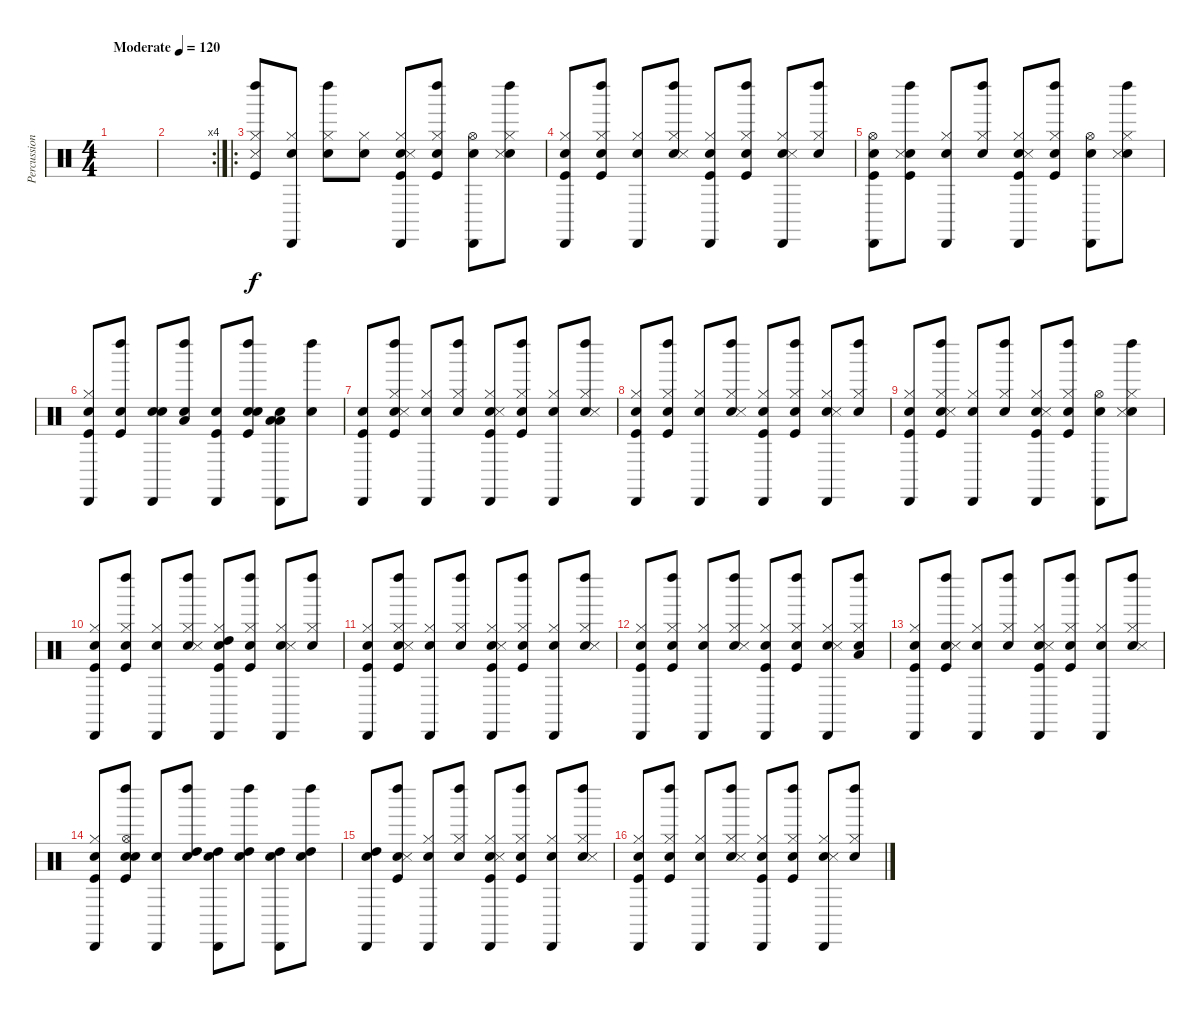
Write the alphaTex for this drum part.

\track ("Percussions" "Percussion") {instrument percussion}
\staff {score}
\articulation defaults
\ts (4 4)
\tempo (120 "Moderate")
\clef neutral
\ks c
|
\rc 4
|
\ro
("Kick (hit)" "Hi-Hat (closed)" "Snare (side stick) 3" "Left Maraca (hit)").8 ("Snare (hit)" "Hi-Hat (closed)" "Cabasa (hit)").8 ("Snare (hit)" "Hi-Hat (closed)" "Left Maraca (hit)").8 ("Snare (hit)" "Hi-Hat (closed)").8 ("Snare (hit)" "Kick (hit)" "Hi-Hat (closed)" "Snare (side stick) 3" "Cabasa (hit)").8 ("Snare (hit)" "Kick (hit)" "Hi-Hat (closed)" "Left Maraca (hit)").8 ("Snare (hit)" "Hi-Hat (open)" "Cabasa (hit)").8 ("Snare (hit)" "Hi-Hat (closed)" "Snare (side stick) 3" "Left Maraca (hit)").8 |
("Snare (hit)" "Kick (hit)" "Hi-Hat (closed)" "Cabasa (hit)").8 ("Snare (hit)" "Kick (hit)" "Hi-Hat (closed)" "Left Maraca (hit)").8 ("Snare (hit)" "Hi-Hat (closed)" "Cabasa (hit)").8 ("Snare (hit)" "Hi-Hat (closed)" "Snare (side stick) 3" "Left Maraca (hit)").8 ("Snare (hit)" "Kick (hit)" "Hi-Hat (closed)" "Cabasa (hit)").8 ("Snare (hit)" "Kick (hit)" "Hi-Hat (closed)" "Left Maraca (hit)").8 ("Snare (hit)" "Hi-Hat (closed)" "Snare (side stick) 3" "Cabasa (hit)").8 ("Snare (hit)" "Hi-Hat (closed)" "Left Maraca (hit)").8 |
("Snare (hit)" "Kick (hit)" "Hi-Hat (open)" "Cabasa (hit)").8 ("Snare (hit)" "Kick (hit)" "Snare (side stick) 3" "Left Maraca (hit)").8 ("Snare (hit)" "Hi-Hat (closed)" "Cabasa (hit)").8 ("Snare (hit)" "Hi-Hat (closed)" "Left Maraca (hit)").8 ("Snare (hit)" "Kick (hit)" "Hi-Hat (closed)" "Snare (side stick) 3" "Cabasa (hit)").8 ("Snare (hit)" "Kick (hit)" "Hi-Hat (closed)" "Left Maraca (hit)").8 ("Snare (hit)" "Hi-Hat (open)" "Cabasa (hit)").8 ("Snare (hit)" "Hi-Hat (closed)" "Snare (side stick) 3" "Left Maraca (hit)").8 |
("Snare (hit)" "Kick (hit)" "Hi-Hat (closed)" "Cabasa (hit)").8 ("Snare (hit)" "Kick (hit)" "Left Maraca (hit)").8 ("Snare (hit)" "Snare (hit) 2" "Cabasa (hit)").8 ("Snare (hit)" "Low Tom (hit)" "Left Maraca (hit)").8 ("Snare (hit)" "Kick (hit)" "Cabasa (hit)").8 ("Snare (hit)" "Kick (hit)" "Snare (hit) 2" "Left Maraca (hit)").8 ("Snare (hit)" "Low Floor Tom (hit)" "Low Tom (hit)" "Cabasa (hit)").8 ("Snare (hit)" "Left Maraca (hit)").8 |
("Snare (hit)" "Kick (hit)" "Cabasa (hit)").8 ("Snare (hit)" "Kick (hit)" "Hi-Hat (closed)" "Snare (side stick) 3" "Left Maraca (hit)").8 ("Snare (hit)" "Hi-Hat (closed)" "Cabasa (hit)").8 ("Snare (hit)" "Hi-Hat (closed)" "Left Maraca (hit)").8 ("Snare (hit)" "Kick (hit)" "Hi-Hat (closed)" "Snare (side stick) 3" "Cabasa (hit)").8 ("Snare (hit)" "Kick (hit)" "Hi-Hat (closed)" "Left Maraca (hit)").8 ("Snare (hit)" "Hi-Hat (closed)" "Cabasa (hit)").8 ("Snare (hit)" "Hi-Hat (closed)" "Snare (side stick) 3" "Left Maraca (hit)").8 |
("Snare (hit)" "Kick (hit)" "Hi-Hat (closed)" "Cabasa (hit)").8 ("Snare (hit)" "Kick (hit)" "Hi-Hat (closed)" "Left Maraca (hit)").8 ("Snare (hit)" "Hi-Hat (closed)" "Cabasa (hit)").8 ("Snare (hit)" "Hi-Hat (closed)" "Snare (side stick) 3" "Left Maraca (hit)").8 ("Snare (hit)" "Kick (hit)" "Hi-Hat (closed)" "Cabasa (hit)").8 ("Snare (hit)" "Kick (hit)" "Hi-Hat (closed)" "Left Maraca (hit)").8 ("Snare (hit)" "Hi-Hat (closed)" "Snare (side stick) 3" "Cabasa (hit)").8 ("Snare (hit)" "Hi-Hat (closed)" "Left Maraca (hit)").8 |
("Snare (hit)" "Kick (hit)" "Hi-Hat (closed)" "Cabasa (hit)").8 ("Snare (hit)" "Kick (hit)" "Hi-Hat (closed)" "Snare (side stick) 3" "Left Maraca (hit)").8 ("Snare (hit)" "Hi-Hat (closed)" "Cabasa (hit)").8 ("Snare (hit)" "Hi-Hat (closed)" "Left Maraca (hit)").8 ("Snare (hit)" "Kick (hit)" "Hi-Hat (closed)" "Snare (side stick) 3" "Cabasa (hit)").8 ("Snare (hit)" "Kick (hit)" "Hi-Hat (closed)" "Left Maraca (hit)").8 ("Snare (hit)" "Hi-Hat (open)" "Cabasa (hit)").8 ("Snare (hit)" "Hi-Hat (closed)" "Snare (side stick) 3" "Left Maraca (hit)").8 |
("Snare (hit)" "Kick (hit)" "Hi-Hat (closed)" "Cabasa (hit)").8 ("Snare (hit)" "Kick (hit)" "Hi-Hat (closed)" "Left Maraca (hit)").8 ("Snare (hit)" "Hi-Hat (closed)" "Cabasa (hit)").8 ("Snare (hit)" "Hi-Hat (closed)" "Snare (side stick) 3" "Left Maraca (hit)").8 ("Snare (hit)" "Kick (hit)" "Hi-Hat (closed)" "High Tom (hit)" "Cabasa (hit)").8 ("Snare (hit)" "Kick (hit)" "Hi-Hat (closed)" "Left Maraca (hit)").8 ("Snare (hit)" "Hi-Hat (closed)" "Snare (side stick) 3" "Cabasa (hit)").8 ("Snare (hit)" "Hi-Hat (closed)" "Left Maraca (hit)").8 |
("Snare (hit)" "Kick (hit)" "Hi-Hat (closed)" "Cabasa (hit)").8 ("Snare (hit)" "Kick (hit)" "Hi-Hat (closed)" "Snare (side stick) 3" "Left Maraca (hit)").8 ("Snare (hit)" "Hi-Hat (closed)" "Cabasa (hit)").8 ("Snare (hit)" "Hi-Hat (closed)" "Left Maraca (hit)").8 ("Snare (hit)" "Kick (hit)" "Hi-Hat (closed)" "Snare (side stick) 3" "Cabasa (hit)").8 ("Snare (hit)" "Kick (hit)" "Hi-Hat (closed)" "Left Maraca (hit)").8 ("Snare (hit)" "Hi-Hat (closed)" "Cabasa (hit)").8 ("Snare (hit)" "Hi-Hat (closed)" "Snare (side stick) 3" "Left Maraca (hit)").8 |
("Snare (hit)" "Kick (hit)" "Hi-Hat (closed)" "Cabasa (hit)").8 ("Snare (hit)" "Kick (hit)" "Hi-Hat (closed)" "Left Maraca (hit)").8 ("Snare (hit)" "Hi-Hat (closed)" "Cabasa (hit)").8 ("Snare (hit)" "Hi-Hat (closed)" "Snare (side stick) 3" "Left Maraca (hit)").8 ("Snare (hit)" "Kick (hit)" "Hi-Hat (closed)" "Cabasa (hit)").8 ("Snare (hit)" "Kick (hit)" "Hi-Hat (closed)" "Left Maraca (hit)").8 ("Snare (hit)" "Hi-Hat (closed)" "Snare (side stick) 3" "Cabasa (hit)").8 ("Snare (hit)" "Hi-Hat (closed)" "Low Tom (hit)" "Left Maraca (hit)").8 |
("Snare (hit)" "Kick (hit)" "Hi-Hat (closed)" "Cabasa (hit)").8 ("Snare (hit)" "Kick (hit)" "Snare (side stick) 3" "Left Maraca (hit)").8 ("Snare (hit)" "Hi-Hat (closed)" "Cabasa (hit)").8 ("Snare (hit)" "Hi-Hat (closed)" "Left Maraca (hit)").8 ("Snare (hit)" "Kick (hit)" "Hi-Hat (closed)" "Snare (side stick) 3" "Cabasa (hit)").8 ("Snare (hit)" "Kick (hit)" "Hi-Hat (closed)" "Left Maraca (hit)").8 ("Snare (hit)" "Hi-Hat (closed)" "Cabasa (hit)").8 ("Snare (hit)" "Hi-Hat (closed)" "Snare (side stick) 3" "Left Maraca (hit)").8 |
("Snare (hit)" "Kick (hit)" "Hi-Hat (closed)" "Cabasa (hit)").8 ("Snare (hit)" "Kick (hit)" "Snare (hit) 2" "Hi-Hat (open)" "Left Maraca (hit)").8 ("Snare (hit)" "Cabasa (hit)").8 ("Snare (hit)" "High Tom (hit)" "Left Maraca (hit)").8 ("Snare (hit)" "High Tom (hit)" "Cabasa (hit)").8 ("Snare (hit)" "High Tom (hit)" "Left Maraca (hit)").8 ("Snare (hit)" "High Tom (hit)" "Cabasa (hit)").8 ("Snare (hit)" "High Tom (hit)" "Left Maraca (hit)").8 |
("Snare (hit)" "High Tom (hit)" "Cabasa (hit)").8 ("Snare (hit)" "Kick (hit)" "Snare (side stick) 3" "Left Maraca (hit)").8 ("Snare (hit)" "Hi-Hat (closed)" "Cabasa (hit)").8 ("Snare (hit)" "Hi-Hat (closed)" "Left Maraca (hit)").8 ("Snare (hit)" "Kick (hit)" "Hi-Hat (closed)" "Snare (side stick) 3" "Cabasa (hit)").8 ("Snare (hit)" "Kick (hit)" "Hi-Hat (closed)" "Left Maraca (hit)").8 ("Snare (hit)" "Hi-Hat (closed)" "Cabasa (hit)").8 ("Snare (hit)" "Hi-Hat (closed)" "Snare (side stick) 3" "Left Maraca (hit)").8 |
("Snare (hit)" "Kick (hit)" "Hi-Hat (closed)" "Cabasa (hit)").8 ("Snare (hit)" "Kick (hit)" "Hi-Hat (closed)" "Left Maraca (hit)").8 ("Snare (hit)" "Hi-Hat (closed)" "Cabasa (hit)").8 ("Snare (hit)" "Hi-Hat (closed)" "Snare (side stick) 3" "Left Maraca (hit)").8 ("Snare (hit)" "Kick (hit)" "Hi-Hat (closed)" "Cabasa (hit)").8 ("Snare (hit)" "Kick (hit)" "Hi-Hat (closed)" "Left Maraca (hit)").8 ("Snare (hit)" "Hi-Hat (closed)" "Snare (side stick) 3" "Cabasa (hit)").8 ("Snare (hit)" "Hi-Hat (closed)" "Left Maraca (hit)").8
